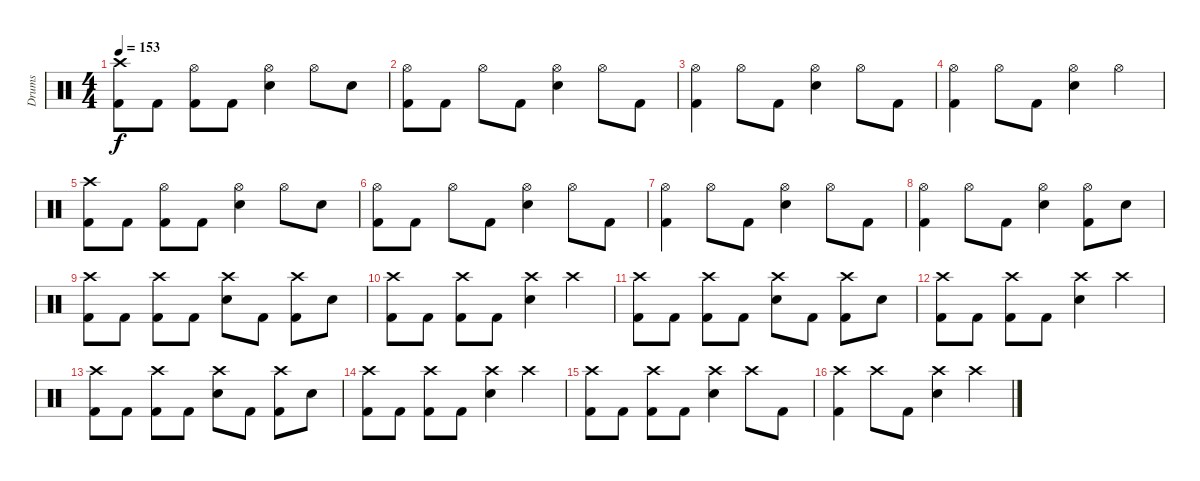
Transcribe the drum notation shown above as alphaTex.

\track ("Drums" "Drums") {instrument percussion}
\staff {score}
\articulation defaults
\ts (4 4)
\tempo 153
\clef neutral
\ks c
("Crash high (hit)" "Kick (hit) 2").8{dy f} "Kick (hit) 2".8 ("Hi-Hat (open)" "Kick (hit) 2").8 "Kick (hit) 2".8 ("Hi-Hat (open)" "Electric Snare (hit)").4 "Hi-Hat (open)".8 "Electric Snare (hit)".8 |
("Hi-Hat (open)" "Kick (hit) 2").8 "Kick (hit) 2".8 "Hi-Hat (open)".8 "Kick (hit) 2".8 ("Hi-Hat (open)" "Electric Snare (hit)").4 "Hi-Hat (open)".8 "Kick (hit) 2".8 |
("Hi-Hat (open)" "Kick (hit) 2").4 "Hi-Hat (open)".8 "Kick (hit) 2".8 ("Hi-Hat (open)" "Electric Snare (hit)").4 "Hi-Hat (open)".8 "Kick (hit) 2".8 |
("Hi-Hat (open)" "Kick (hit) 2").4 "Hi-Hat (open)".8 "Kick (hit) 2".8 ("Hi-Hat (open)" "Electric Snare (hit)").4 "Hi-Hat (open)".4 |
("Crash high (hit)" "Kick (hit) 2").8 "Kick (hit) 2".8 ("Hi-Hat (open)" "Kick (hit) 2").8 "Kick (hit) 2".8 ("Hi-Hat (open)" "Electric Snare (hit)").4 "Hi-Hat (open)".8 "Electric Snare (hit)".8 |
("Hi-Hat (open)" "Kick (hit) 2").8 "Kick (hit) 2".8 "Hi-Hat (open)".8 "Kick (hit) 2".8 ("Hi-Hat (open)" "Electric Snare (hit)").4 "Hi-Hat (open)".8 "Kick (hit) 2".8 |
("Hi-Hat (open)" "Kick (hit) 2").4 "Hi-Hat (open)".8 "Kick (hit) 2".8 ("Hi-Hat (open)" "Electric Snare (hit)").4 "Hi-Hat (open)".8 "Kick (hit) 2".8 |
("Hi-Hat (open)" "Kick (hit) 2").4 "Hi-Hat (open)".8 "Kick (hit) 2".8 ("Hi-Hat (open)" "Electric Snare (hit)").4 ("Hi-Hat (open)" "Kick (hit) 2").8 "Electric Snare (hit)".8 |
("Crash high (hit)" "Kick (hit) 2").8 "Kick (hit) 2".8 ("Crash high (hit)" "Kick (hit) 2").8 "Kick (hit) 2".8 ("Crash high (hit)" "Electric Snare (hit)").8 "Kick (hit) 2".8 ("Crash high (hit)" "Kick (hit) 2").8 "Electric Snare (hit)".8 |
("Crash high (hit)" "Kick (hit) 2").8 "Kick (hit) 2".8 ("Crash high (hit)" "Kick (hit) 2").8 "Kick (hit) 2".8 ("Crash high (hit)" "Electric Snare (hit)").4 "Crash high (hit)".4 |
("Crash high (hit)" "Kick (hit) 2").8 "Kick (hit) 2".8 ("Crash high (hit)" "Kick (hit) 2").8 "Kick (hit) 2".8 ("Crash high (hit)" "Electric Snare (hit)").8 "Kick (hit) 2".8 ("Crash high (hit)" "Kick (hit) 2").8 "Electric Snare (hit)".8 |
("Crash high (hit)" "Kick (hit) 2").8 "Kick (hit) 2".8 ("Crash high (hit)" "Kick (hit) 2").8 "Kick (hit) 2".8 ("Crash high (hit)" "Electric Snare (hit)").4 "Crash high (hit)".4 |
("Crash high (hit)" "Kick (hit) 2").8 "Kick (hit) 2".8 ("Crash high (hit)" "Kick (hit) 2").8 "Kick (hit) 2".8 ("Crash high (hit)" "Electric Snare (hit)").8 "Kick (hit) 2".8 ("Crash high (hit)" "Kick (hit) 2").8 "Electric Snare (hit)".8 |
("Crash high (hit)" "Kick (hit) 2").8 "Kick (hit) 2".8 ("Crash high (hit)" "Kick (hit) 2").8 "Kick (hit) 2".8 ("Crash high (hit)" "Electric Snare (hit)").4 "Crash high (hit)".4 |
("Crash high (hit)" "Kick (hit) 2").8 "Kick (hit) 2".8 ("Crash high (hit)" "Kick (hit) 2").8 "Kick (hit) 2".8 ("Crash high (hit)" "Electric Snare (hit)").4 "Crash high (hit)".8 "Kick (hit) 2".8 |
("Crash high (hit)" "Kick (hit) 2").4 "Crash high (hit)".8 "Kick (hit) 2".8 ("Crash high (hit)" "Electric Snare (hit)").4 "Crash high (hit)".4
